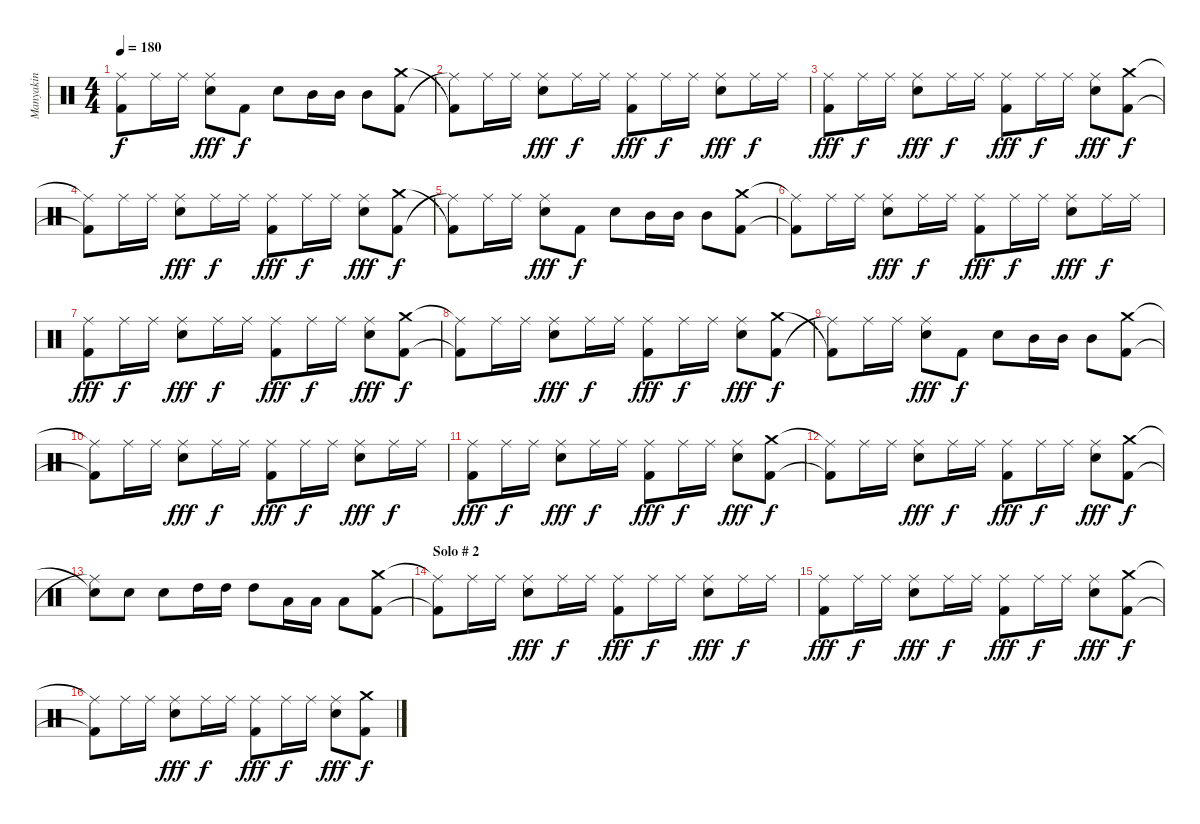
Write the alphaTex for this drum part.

\track ("Manyakin" "Manyakin") {instrument percussion}
\staff {score}
\articulation defaults
\ts (4 4)
\tempo 180
\clef neutral
\ks c
("Ride (middle)"{t} "Kick (hit) 2"{t}).8{dy f} "Ride (middle)".16 "Ride (middle)".16 ("Snare (hit) 2" "Ride (middle)").8{dy fff} "Kick (hit) 2".8{dy f} "Snare (hit) 2".8 "Mid Tom (hit)".16 "Mid Tom (hit)".16 "Mid Tom (hit)".8 ("Kick (hit) 2" "Crash medium (hit)").8 |
("Ride (middle)"{t} "Kick (hit) 2"{t}).8 "Ride (middle)".16 "Ride (middle)".16 ("Snare (hit) 2" "Ride (middle)").8{dy fff} "Ride (middle)".16{dy f} "Ride (middle)".16 ("Kick (hit) 2" "Ride (middle)").8{dy fff} "Ride (middle)".16{dy f} "Ride (middle)".16 ("Snare (hit) 2" "Ride (middle)").8{dy fff} "Ride (middle)".16{dy f} "Ride (middle)".16 |
("Kick (hit) 2" "Ride (middle)").8{dy fff} "Ride (middle)".16{dy f} "Ride (middle)".16 ("Snare (hit) 2" "Ride (middle)").8{dy fff} "Ride (middle)".16{dy f} "Ride (middle)".16 ("Kick (hit) 2" "Ride (middle)").8{dy fff} "Ride (middle)".16{dy f} "Ride (middle)".16 ("Snare (hit) 2" "Ride (middle)").8{dy fff} ("Kick (hit) 2" "Crash medium (hit)").8{dy f} |
("Kick (hit) 2"{t} "Ride (middle)"{t}).8 "Ride (middle)".16 "Ride (middle)".16 ("Snare (hit) 2" "Ride (middle)").8{dy fff} "Ride (middle)".16{dy f} "Ride (middle)".16 ("Kick (hit) 2" "Ride (middle)").8{dy fff} "Ride (middle)".16{dy f} "Ride (middle)".16 ("Snare (hit) 2" "Ride (middle)").8{dy fff} ("Kick (hit) 2" "Crash medium (hit)").8{dy f} |
("Ride (middle)"{t} "Kick (hit) 2"{t}).8 "Ride (middle)".16 "Ride (middle)".16 ("Snare (hit) 2" "Ride (middle)").8{dy fff} "Kick (hit) 2".8{dy f} "Snare (hit) 2".8 "Mid Tom (hit)".16 "Mid Tom (hit)".16 "Mid Tom (hit)".8 ("Kick (hit) 2" "Crash medium (hit)").8 |
("Kick (hit) 2"{t} "Ride (middle)"{t}).8 "Ride (middle)".16 "Ride (middle)".16 ("Snare (hit) 2" "Ride (middle)").8{dy fff} "Ride (middle)".16{dy f} "Ride (middle)".16 ("Kick (hit) 2" "Ride (middle)").8{dy fff} "Ride (middle)".16{dy f} "Ride (middle)".16 ("Snare (hit) 2" "Ride (middle)").8{dy fff} "Ride (middle)".16{dy f} "Ride (middle)".16 |
("Kick (hit) 2" "Ride (middle)").8{dy fff} "Ride (middle)".16{dy f} "Ride (middle)".16 ("Snare (hit) 2" "Ride (middle)").8{dy fff} "Ride (middle)".16{dy f} "Ride (middle)".16 ("Kick (hit) 2" "Ride (middle)").8{dy fff} "Ride (middle)".16{dy f} "Ride (middle)".16 ("Snare (hit) 2" "Ride (middle)").8{dy fff} ("Kick (hit) 2" "Crash medium (hit)").8{dy f} |
("Kick (hit) 2"{t} "Ride (middle)"{t}).8 "Ride (middle)".16 "Ride (middle)".16 ("Snare (hit) 2" "Ride (middle)").8{dy fff} "Ride (middle)".16{dy f} "Ride (middle)".16 ("Kick (hit) 2" "Ride (middle)").8{dy fff} "Ride (middle)".16{dy f} "Ride (middle)".16 ("Snare (hit) 2" "Ride (middle)").8{dy fff} ("Kick (hit) 2" "Crash medium (hit)").8{dy f} |
("Ride (middle)"{t} "Kick (hit) 2"{t}).8 "Ride (middle)".16 "Ride (middle)".16 ("Snare (hit) 2" "Ride (middle)").8{dy fff} "Kick (hit) 2".8{dy f} "Snare (hit) 2".8 "Mid Tom (hit)".16 "Mid Tom (hit)".16 "Mid Tom (hit)".8 ("Kick (hit) 2" "Crash medium (hit)").8 |
("Kick (hit) 2"{t} "Ride (middle)"{t}).8 "Ride (middle)".16 "Ride (middle)".16 ("Snare (hit) 2" "Ride (middle)").8{dy fff} "Ride (middle)".16{dy f} "Ride (middle)".16 ("Kick (hit) 2" "Ride (middle)").8{dy fff} "Ride (middle)".16{dy f} "Ride (middle)".16 ("Snare (hit) 2" "Ride (middle)").8{dy fff} "Ride (middle)".16{dy f} "Ride (middle)".16 |
("Kick (hit) 2" "Ride (middle)").8{dy fff} "Ride (middle)".16{dy f} "Ride (middle)".16 ("Snare (hit) 2" "Ride (middle)").8{dy fff} "Ride (middle)".16{dy f} "Ride (middle)".16 ("Kick (hit) 2" "Ride (middle)").8{dy fff} "Ride (middle)".16{dy f} "Ride (middle)".16 ("Snare (hit) 2" "Ride (middle)").8{dy fff} ("Kick (hit) 2" "Crash medium (hit)").8{dy f} |
("Kick (hit) 2"{t} "Ride (middle)"{t}).8 "Ride (middle)".16 "Ride (middle)".16 ("Snare (hit) 2" "Ride (middle)").8{dy fff} "Ride (middle)".16{dy f} "Ride (middle)".16 ("Kick (hit) 2" "Ride (middle)").8{dy fff} "Ride (middle)".16{dy f} "Ride (middle)".16 ("Snare (hit) 2" "Ride (middle)").8{dy fff} ("Kick (hit) 2" "Crash medium (hit)").8{dy f} |
("Ride (middle)"{t} "Snare (hit)"{t}).8 "Snare (hit) 2".8 "Snare (hit) 2".8 "High Tom (hit)".16 "High Tom (hit)".16 "High Tom (hit)".8 "Low Tom (hit)".16 "Low Tom (hit)".16 "Low Tom (hit)".8 ("Kick (hit) 2" "Crash medium (hit)").8 |
\section ("" "Solo # 2")
("Kick (hit) 2"{t} "Ride (middle)"{t}).8 "Ride (middle)".16 "Ride (middle)".16 ("Snare (hit) 2" "Ride (middle)").8{dy fff} "Ride (middle)".16{dy f} "Ride (middle)".16 ("Kick (hit) 2" "Ride (middle)").8{dy fff} "Ride (middle)".16{dy f} "Ride (middle)".16 ("Snare (hit) 2" "Ride (middle)").8{dy fff} "Ride (middle)".16{dy f} "Ride (middle)".16 |
("Kick (hit) 2" "Ride (middle)").8{dy fff} "Ride (middle)".16{dy f} "Ride (middle)".16 ("Snare (hit) 2" "Ride (middle)").8{dy fff} "Ride (middle)".16{dy f} "Ride (middle)".16 ("Kick (hit) 2" "Ride (middle)").8{dy fff} "Ride (middle)".16{dy f} "Ride (middle)".16 ("Snare (hit) 2" "Ride (middle)").8{dy fff} ("Kick (hit) 2" "Crash medium (hit)").8{dy f} |
("Kick (hit) 2"{t} "Ride (middle)"{t}).8 "Ride (middle)".16 "Ride (middle)".16 ("Snare (hit) 2" "Ride (middle)").8{dy fff} "Ride (middle)".16{dy f} "Ride (middle)".16 ("Kick (hit) 2" "Ride (middle)").8{dy fff} "Ride (middle)".16{dy f} "Ride (middle)".16 ("Snare (hit) 2" "Ride (middle)").8{dy fff} ("Kick (hit) 2" "Crash medium (hit)").8{dy f}
